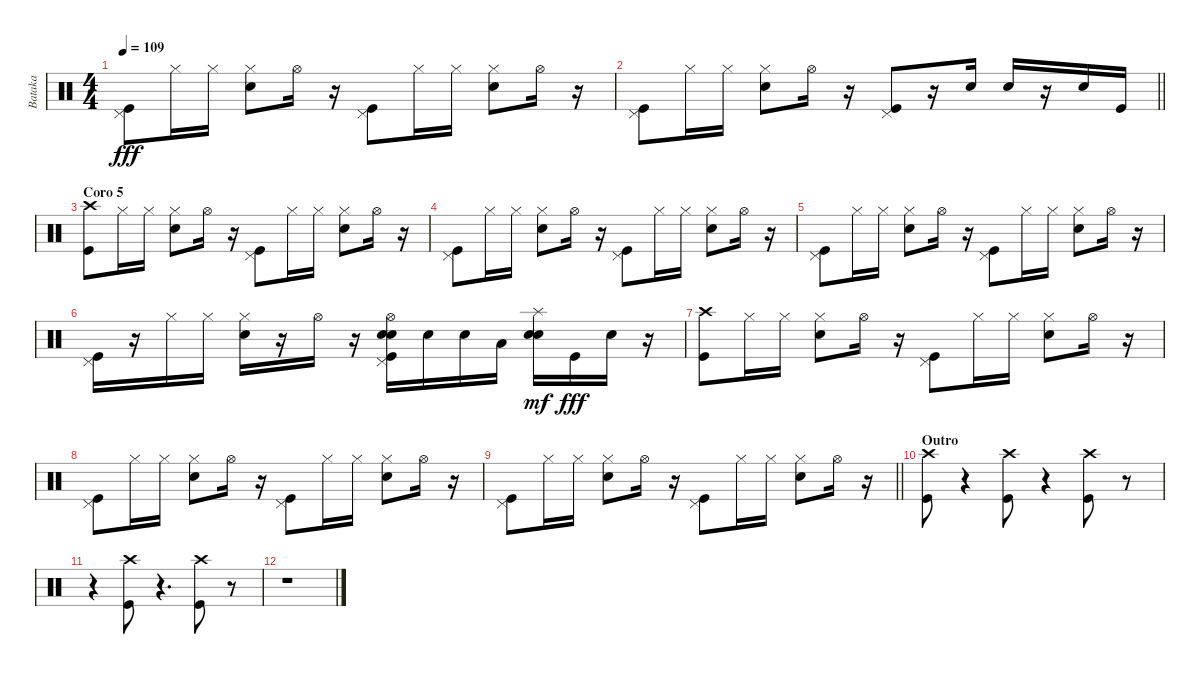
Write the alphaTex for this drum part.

\track ("Bataka" "Bataka") {instrument percussion}
\staff {score}
\articulation defaults
\ts (4 4)
\tempo 109
\clef neutral
\ks c
("Kick (hit)" "Pedal Hi-Hat (hit)").8{dy fff} "Hi-Hat (closed)".16 "Hi-Hat (closed)".16 ("Snare (hit) 2" "Hi-Hat (closed)").8 "Hi-Hat (open)".16 r.16 ("Kick (hit)" "Pedal Hi-Hat (hit)").8 "Hi-Hat (closed)".16 "Hi-Hat (closed)".16 ("Snare (hit) 2" "Hi-Hat (closed)").8 "Hi-Hat (open)".16 r.16 |
\barLineRight lightlight
("Kick (hit)" "Pedal Hi-Hat (hit)").8 "Hi-Hat (closed)".16 "Hi-Hat (closed)".16 ("Snare (hit) 2" "Hi-Hat (closed)").8 "Hi-Hat (open)".16 r.16 ("Kick (hit)" "Pedal Hi-Hat (hit)").8 r.16 "Snare (hit) 2".16 "Snare (hit) 2".16 r.16 "Snare (hit) 2".16 "Kick (hit)".16 |
\section ("" "Coro 5")
("Kick (hit)" "Crash high (hit)").8 "Hi-Hat (closed)".16 "Hi-Hat (closed)".16 ("Snare (hit) 2" "Hi-Hat (closed)").8 "Hi-Hat (open)".16 r.16 ("Kick (hit)" "Pedal Hi-Hat (hit)").8 "Hi-Hat (closed)".16 "Hi-Hat (closed)".16 ("Snare (hit) 2" "Hi-Hat (closed)").8 "Hi-Hat (open)".16 r.16 |
("Kick (hit)" "Pedal Hi-Hat (hit)").8 "Hi-Hat (closed)".16 "Hi-Hat (closed)".16 ("Snare (hit) 2" "Hi-Hat (closed)").8 "Hi-Hat (open)".16 r.16 ("Kick (hit)" "Pedal Hi-Hat (hit)").8 "Hi-Hat (closed)".16 "Hi-Hat (closed)".16 ("Snare (hit) 2" "Hi-Hat (closed)").8 "Hi-Hat (open)".16 r.16 |
("Kick (hit)" "Pedal Hi-Hat (hit)").8 "Hi-Hat (closed)".16 "Hi-Hat (closed)".16 ("Snare (hit) 2" "Hi-Hat (closed)").8 "Hi-Hat (open)".16 r.16 ("Kick (hit)" "Pedal Hi-Hat (hit)").8 "Hi-Hat (closed)".16 "Hi-Hat (closed)".16 ("Snare (hit) 2" "Hi-Hat (closed)").8 "Hi-Hat (open)".16 r.16 |
("Kick (hit)" "Pedal Hi-Hat (hit)").16 r.16 "Hi-Hat (closed)".16 "Hi-Hat (closed)".16 ("Snare (hit) 2" "Hi-Hat (closed)").16 r.16 "Hi-Hat (open)".16 r.16 ("Snare (hit) 2" "Kick (hit)" "Snare (hit) 2" "Hi-Hat (open)" "Pedal Hi-Hat (hit)").16 "Snare (hit) 2".16 "Snare (hit) 2".16 "Low Floor Tom (hit)".16 ("Snare (hit) 2" "Snare (hit) 2" "Splash (hit)").16{dy mf} "Kick (hit)".16{dy fff} "Snare (hit) 2".16 r.16 |
("Kick (hit)" "Crash high (hit)").8 "Hi-Hat (closed)".16 "Hi-Hat (closed)".16 ("Snare (hit) 2" "Hi-Hat (closed)").8 "Hi-Hat (open)".16 r.16 ("Kick (hit)" "Pedal Hi-Hat (hit)").8 "Hi-Hat (closed)".16 "Hi-Hat (closed)".16 ("Snare (hit) 2" "Hi-Hat (closed)").8 "Hi-Hat (open)".16 r.16 |
("Kick (hit)" "Pedal Hi-Hat (hit)").8 "Hi-Hat (closed)".16 "Hi-Hat (closed)".16 ("Snare (hit) 2" "Hi-Hat (closed)").8 "Hi-Hat (open)".16 r.16 ("Kick (hit)" "Pedal Hi-Hat (hit)").8 "Hi-Hat (closed)".16 "Hi-Hat (closed)".16 ("Snare (hit) 2" "Hi-Hat (closed)").8 "Hi-Hat (open)".16 r.16 |
\barLineRight lightlight
("Kick (hit)" "Pedal Hi-Hat (hit)").8 "Hi-Hat (closed)".16 "Hi-Hat (closed)".16 ("Snare (hit) 2" "Hi-Hat (closed)").8 "Hi-Hat (open)".16 r.16 ("Kick (hit)" "Pedal Hi-Hat (hit)").8 "Hi-Hat (closed)".16 "Hi-Hat (closed)".16 ("Snare (hit) 2" "Hi-Hat (closed)").8 "Hi-Hat (open)".16 r.16 |
\section ("" "Outro")
("Crash high (hit)" "Kick (hit)").8 r.4 ("Kick (hit)" "Crash high (hit)").8 r.4 ("Kick (hit)" "Crash high (hit)").8 r.8 |
r.4 ("Kick (hit)" "Crash high (hit)").8 r.4{d} ("Kick (hit)" "Crash high (hit)").8 r.8 |
r.1
